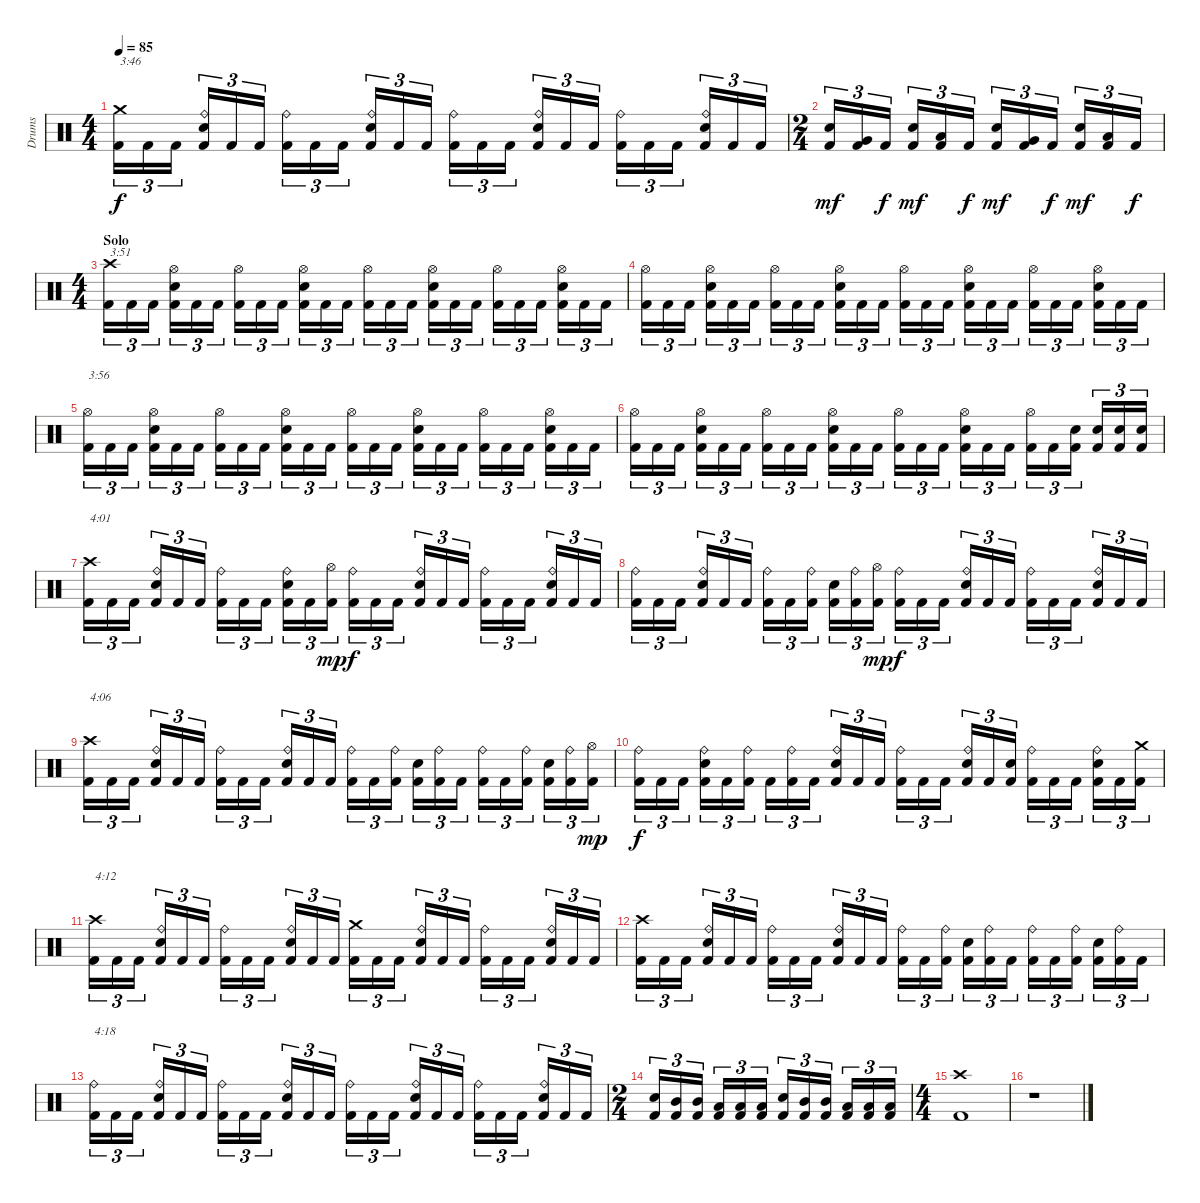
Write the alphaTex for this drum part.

\track ("Drums" "Drums") {instrument percussion}
\staff {score}
\articulation defaults
\ts (4 4)
\tempo 85
\clef neutral
\ks c
("Crash medium (hit)" "Kick (hit) 2").16{tu (3 2) txt "3:46" dy f} "Kick (hit) 2".16{tu (3 2)} "Kick (hit) 2".16{tu (3 2)} ("Ride (bell)" "Electric Snare (hit)" "Kick (hit) 2").16{tu (3 2)} "Kick (hit) 2".16{tu (3 2)} "Kick (hit) 2".16{tu (3 2)} ("Ride (bell)" "Kick (hit) 2").16{tu (3 2)} "Kick (hit) 2".16{tu (3 2)} "Kick (hit) 2".16{tu (3 2)} ("Ride (bell)" "Electric Snare (hit)" "Kick (hit) 2").16{tu (3 2)} "Kick (hit) 2".16{tu (3 2)} "Kick (hit) 2".16{tu (3 2)} ("Ride (bell)" "Kick (hit) 2").16{tu (3 2)} "Kick (hit) 2".16{tu (3 2)} "Kick (hit) 2".16{tu (3 2)} ("Ride (bell)" "Electric Snare (hit)" "Kick (hit) 2").16{tu (3 2)} "Kick (hit) 2".16{tu (3 2)} "Kick (hit) 2".16{tu (3 2)} ("Ride (bell)" "Kick (hit) 2").16{tu (3 2)} "Kick (hit) 2".16{tu (3 2)} "Kick (hit) 2".16{tu (3 2)} ("Ride (bell)" "Electric Snare (hit)" "Kick (hit) 2").16{tu (3 2)} "Kick (hit) 2".16{tu (3 2)} "Kick (hit) 2".16{tu (3 2)} |
\ts (2 4)
("Electric Snare (hit)" "Kick (hit) 2").16{tu (3 2) dy mf} ("Very Low Tom (hit)" "Kick (hit) 2").16{tu (3 2)} "Kick (hit) 2".16{tu (3 2) dy f} ("Electric Snare (hit)" "Kick (hit) 2").16{tu (3 2) dy mf} ("Low Floor Tom (hit)" "Kick (hit) 2").16{tu (3 2)} "Kick (hit) 2".16{tu (3 2) dy f} ("Electric Snare (hit)" "Kick (hit) 2").16{tu (3 2) dy mf} ("Very Low Tom (hit)" "Kick (hit) 2").16{tu (3 2)} "Kick (hit) 2".16{tu (3 2) dy f} ("Electric Snare (hit)" "Kick (hit) 2").16{tu (3 2) dy mf} ("Low Floor Tom (hit)" "Kick (hit) 2").16{tu (3 2)} "Kick (hit) 2".16{tu (3 2) dy f} |
\ts (4 4)
\section ("" "Solo")
("Crash high (hit)" "Kick (hit) 2").16{tu (3 2) txt "3:51"} "Kick (hit) 2".16{tu (3 2)} "Kick (hit) 2".16{tu (3 2)} ("Hi-Hat (open)" "Electric Snare (hit)" "Kick (hit) 2").16{tu (3 2)} "Kick (hit) 2".16{tu (3 2)} "Kick (hit) 2".16{tu (3 2)} ("Hi-Hat (open)" "Kick (hit) 2").16{tu (3 2)} "Kick (hit) 2".16{tu (3 2)} "Kick (hit) 2".16{tu (3 2)} ("Hi-Hat (open)" "Electric Snare (hit)" "Kick (hit) 2").16{tu (3 2)} "Kick (hit) 2".16{tu (3 2)} "Kick (hit) 2".16{tu (3 2)} ("Hi-Hat (open)" "Kick (hit) 2").16{tu (3 2)} "Kick (hit) 2".16{tu (3 2)} "Kick (hit) 2".16{tu (3 2)} ("Hi-Hat (open)" "Electric Snare (hit)" "Kick (hit) 2").16{tu (3 2)} "Kick (hit) 2".16{tu (3 2)} "Kick (hit) 2".16{tu (3 2)} ("Hi-Hat (open)" "Kick (hit) 2").16{tu (3 2)} "Kick (hit) 2".16{tu (3 2)} "Kick (hit) 2".16{tu (3 2)} ("Hi-Hat (open)" "Electric Snare (hit)" "Kick (hit) 2").16{tu (3 2)} "Kick (hit) 2".16{tu (3 2)} "Kick (hit) 2".16{tu (3 2)} |
("Hi-Hat (open)" "Kick (hit) 2").16{tu (3 2)} "Kick (hit) 2".16{tu (3 2)} "Kick (hit) 2".16{tu (3 2)} ("Hi-Hat (open)" "Electric Snare (hit)" "Kick (hit) 2").16{tu (3 2)} "Kick (hit) 2".16{tu (3 2)} "Kick (hit) 2".16{tu (3 2)} ("Hi-Hat (open)" "Kick (hit) 2").16{tu (3 2)} "Kick (hit) 2".16{tu (3 2)} "Kick (hit) 2".16{tu (3 2)} ("Hi-Hat (open)" "Electric Snare (hit)" "Kick (hit) 2").16{tu (3 2)} "Kick (hit) 2".16{tu (3 2)} "Kick (hit) 2".16{tu (3 2)} ("Hi-Hat (open)" "Kick (hit) 2").16{tu (3 2)} "Kick (hit) 2".16{tu (3 2)} "Kick (hit) 2".16{tu (3 2)} ("Hi-Hat (open)" "Electric Snare (hit)" "Kick (hit) 2").16{tu (3 2)} "Kick (hit) 2".16{tu (3 2)} "Kick (hit) 2".16{tu (3 2)} ("Hi-Hat (open)" "Kick (hit) 2").16{tu (3 2)} "Kick (hit) 2".16{tu (3 2)} "Kick (hit) 2".16{tu (3 2)} ("Hi-Hat (open)" "Electric Snare (hit)" "Kick (hit) 2").16{tu (3 2)} "Kick (hit) 2".16{tu (3 2)} "Kick (hit) 2".16{tu (3 2)} |
("Hi-Hat (open)" "Kick (hit) 2").16{tu (3 2) txt "3:56"} "Kick (hit) 2".16{tu (3 2)} "Kick (hit) 2".16{tu (3 2)} ("Hi-Hat (open)" "Electric Snare (hit)" "Kick (hit) 2").16{tu (3 2)} "Kick (hit) 2".16{tu (3 2)} "Kick (hit) 2".16{tu (3 2)} ("Hi-Hat (open)" "Kick (hit) 2").16{tu (3 2)} "Kick (hit) 2".16{tu (3 2)} "Kick (hit) 2".16{tu (3 2)} ("Hi-Hat (open)" "Electric Snare (hit)" "Kick (hit) 2").16{tu (3 2)} "Kick (hit) 2".16{tu (3 2)} "Kick (hit) 2".16{tu (3 2)} ("Hi-Hat (open)" "Kick (hit) 2").16{tu (3 2)} "Kick (hit) 2".16{tu (3 2)} "Kick (hit) 2".16{tu (3 2)} ("Hi-Hat (open)" "Electric Snare (hit)" "Kick (hit) 2").16{tu (3 2)} "Kick (hit) 2".16{tu (3 2)} "Kick (hit) 2".16{tu (3 2)} ("Hi-Hat (open)" "Kick (hit) 2").16{tu (3 2)} "Kick (hit) 2".16{tu (3 2)} "Kick (hit) 2".16{tu (3 2)} ("Hi-Hat (open)" "Electric Snare (hit)" "Kick (hit) 2").16{tu (3 2)} "Kick (hit) 2".16{tu (3 2)} "Kick (hit) 2".16{tu (3 2)} |
("Hi-Hat (open)" "Kick (hit) 2").16{tu (3 2)} "Kick (hit) 2".16{tu (3 2)} "Kick (hit) 2".16{tu (3 2)} ("Hi-Hat (open)" "Electric Snare (hit)" "Kick (hit) 2").16{tu (3 2)} "Kick (hit) 2".16{tu (3 2)} "Kick (hit) 2".16{tu (3 2)} ("Hi-Hat (open)" "Kick (hit) 2").16{tu (3 2)} "Kick (hit) 2".16{tu (3 2)} "Kick (hit) 2".16{tu (3 2)} ("Hi-Hat (open)" "Electric Snare (hit)" "Kick (hit) 2").16{tu (3 2)} "Kick (hit) 2".16{tu (3 2)} "Kick (hit) 2".16{tu (3 2)} ("Hi-Hat (open)" "Kick (hit) 2").16{tu (3 2)} "Kick (hit) 2".16{tu (3 2)} "Kick (hit) 2".16{tu (3 2)} ("Hi-Hat (open)" "Electric Snare (hit)" "Kick (hit) 2").16{tu (3 2)} "Kick (hit) 2".16{tu (3 2)} "Kick (hit) 2".16{tu (3 2)} ("Hi-Hat (open)" "Kick (hit) 2").16{tu (3 2)} "Kick (hit) 2".16{tu (3 2)} ("Electric Snare (hit)" "Kick (hit) 2").16{tu (3 2)} ("Electric Snare (hit)" "Kick (hit) 2").16{tu (3 2)} ("Electric Snare (hit)" "Kick (hit) 2").16{tu (3 2)} ("Electric Snare (hit)" "Kick (hit) 2").16{tu (3 2)} |
("Crash high (hit)" "Kick (hit) 2").16{tu (3 2) txt "4:01"} "Kick (hit) 2".16{tu (3 2)} "Kick (hit) 2".16{tu (3 2)} ("Ride (bell)" "Electric Snare (hit)" "Kick (hit) 2").16{tu (3 2)} "Kick (hit) 2".16{tu (3 2)} "Kick (hit) 2".16{tu (3 2)} ("Ride (bell)" "Kick (hit) 2").16{tu (3 2)} "Kick (hit) 2".16{tu (3 2)} "Kick (hit) 2".16{tu (3 2)} ("Ride (bell)" "Electric Snare (hit)" "Kick (hit) 2").16{tu (3 2)} "Kick (hit) 2".16{tu (3 2)} ("Hi-Hat (open)" "Kick (hit) 2").16{tu (3 2) dy mp} ("Ride (bell)" "Kick (hit) 2").16{tu (3 2) dy f} "Kick (hit) 2".16{tu (3 2)} "Kick (hit) 2".16{tu (3 2)} ("Ride (bell)" "Electric Snare (hit)" "Kick (hit) 2").16{tu (3 2)} "Kick (hit) 2".16{tu (3 2)} "Kick (hit) 2".16{tu (3 2)} ("Ride (bell)" "Kick (hit) 2").16{tu (3 2)} "Kick (hit) 2".16{tu (3 2)} "Kick (hit) 2".16{tu (3 2)} ("Ride (bell)" "Electric Snare (hit)" "Kick (hit) 2").16{tu (3 2)} "Kick (hit) 2".16{tu (3 2)} "Kick (hit) 2".16{tu (3 2)} |
("Ride (bell)" "Kick (hit) 2").16{tu (3 2)} "Kick (hit) 2".16{tu (3 2)} "Kick (hit) 2".16{tu (3 2)} ("Ride (bell)" "Electric Snare (hit)" "Kick (hit) 2").16{tu (3 2)} "Kick (hit) 2".16{tu (3 2)} "Kick (hit) 2".16{tu (3 2)} ("Ride (bell)" "Kick (hit) 2").16{tu (3 2)} "Kick (hit) 2".16{tu (3 2)} ("Ride (bell)" "Kick (hit) 2").16{tu (3 2)} ("Electric Snare (hit)" "Kick (hit) 2").16{tu (3 2)} ("Ride (bell)" "Kick (hit) 2").16{tu (3 2)} ("Hi-Hat (open)" "Kick (hit) 2").16{tu (3 2) dy mp} ("Ride (bell)" "Kick (hit) 2").16{tu (3 2) dy f} "Kick (hit) 2".16{tu (3 2)} "Kick (hit) 2".16{tu (3 2)} ("Ride (bell)" "Electric Snare (hit)" "Kick (hit) 2").16{tu (3 2)} "Kick (hit) 2".16{tu (3 2)} "Kick (hit) 2".16{tu (3 2)} ("Ride (bell)" "Kick (hit) 2").16{tu (3 2)} "Kick (hit) 2".16{tu (3 2)} "Kick (hit) 2".16{tu (3 2)} ("Ride (bell)" "Electric Snare (hit)" "Kick (hit) 2").16{tu (3 2)} "Kick (hit) 2".16{tu (3 2)} "Kick (hit) 2".16{tu (3 2)} |
("Crash high (hit)" "Kick (hit) 2").16{tu (3 2) txt "4:06"} "Kick (hit) 2".16{tu (3 2)} "Kick (hit) 2".16{tu (3 2)} ("Ride (bell)" "Electric Snare (hit)" "Kick (hit) 2").16{tu (3 2)} "Kick (hit) 2".16{tu (3 2)} "Kick (hit) 2".16{tu (3 2)} ("Ride (bell)" "Kick (hit) 2").16{tu (3 2)} "Kick (hit) 2".16{tu (3 2)} "Kick (hit) 2".16{tu (3 2)} ("Ride (bell)" "Electric Snare (hit)" "Kick (hit) 2").16{tu (3 2)} "Kick (hit) 2".16{tu (3 2)} "Kick (hit) 2".16{tu (3 2)} ("Ride (bell)" "Kick (hit) 2").16{tu (3 2)} "Kick (hit) 2".16{tu (3 2)} ("Ride (bell)" "Kick (hit) 2").16{tu (3 2)} ("Electric Snare (hit)" "Kick (hit) 2").16{tu (3 2)} ("Ride (bell)" "Kick (hit) 2").16{tu (3 2)} "Kick (hit) 2".16{tu (3 2)} ("Ride (bell)" "Kick (hit) 2").16{tu (3 2)} "Kick (hit) 2".16{tu (3 2)} ("Ride (bell)" "Kick (hit) 2").16{tu (3 2)} ("Electric Snare (hit)" "Kick (hit) 2").16{tu (3 2)} ("Ride (bell)" "Kick (hit) 2").16{tu (3 2)} ("Hi-Hat (open)" "Kick (hit) 2").16{tu (3 2) dy mp} |
("Ride (bell)" "Kick (hit) 2").16{tu (3 2) dy f} "Kick (hit) 2".16{tu (3 2)} "Kick (hit) 2".16{tu (3 2)} ("Ride (bell)" "Electric Snare (hit)" "Kick (hit) 2").16{tu (3 2)} "Kick (hit) 2".16{tu (3 2)} ("Ride (bell)" "Kick (hit) 2").16{tu (3 2)} "Kick (hit) 2".16{tu (3 2)} ("Ride (bell)" "Kick (hit) 2").16{tu (3 2)} "Kick (hit) 2".16{tu (3 2)} ("Ride (bell)" "Electric Snare (hit)" "Kick (hit) 2").16{tu (3 2)} "Kick (hit) 2".16{tu (3 2)} "Kick (hit) 2".16{tu (3 2)} ("Ride (bell)" "Kick (hit) 2").16{tu (3 2)} "Kick (hit) 2".16{tu (3 2)} "Kick (hit) 2".16{tu (3 2)} ("Ride (bell)" "Electric Snare (hit)" "Kick (hit) 2").16{tu (3 2)} "Kick (hit) 2".16{tu (3 2)} ("Electric Snare (hit)" "Kick (hit) 2").16{tu (3 2)} ("Ride (bell)" "Kick (hit) 2").16{tu (3 2)} "Kick (hit) 2".16{tu (3 2)} "Kick (hit) 2".16{tu (3 2)} ("Ride (bell)" "Electric Snare (hit)" "Kick (hit) 2").16{tu (3 2)} "Kick (hit) 2".16{tu (3 2)} ("Crash medium (hit)" "Kick (hit) 2").16{tu (3 2)} |
("Crash high (hit)" "Kick (hit) 2").16{tu (3 2) txt "4:12"} "Kick (hit) 2".16{tu (3 2)} "Kick (hit) 2".16{tu (3 2)} ("Ride (bell)" "Electric Snare (hit)" "Kick (hit) 2").16{tu (3 2)} "Kick (hit) 2".16{tu (3 2)} "Kick (hit) 2".16{tu (3 2)} ("Ride (bell)" "Kick (hit) 2").16{tu (3 2)} "Kick (hit) 2".16{tu (3 2)} "Kick (hit) 2".16{tu (3 2)} ("Ride (bell)" "Electric Snare (hit)" "Kick (hit) 2").16{tu (3 2)} "Kick (hit) 2".16{tu (3 2)} "Kick (hit) 2".16{tu (3 2)} ("Crash medium (hit)" "Kick (hit) 2").16{tu (3 2)} "Kick (hit) 2".16{tu (3 2)} "Kick (hit) 2".16{tu (3 2)} ("Ride (bell)" "Electric Snare (hit)" "Kick (hit) 2").16{tu (3 2)} "Kick (hit) 2".16{tu (3 2)} "Kick (hit) 2".16{tu (3 2)} ("Ride (bell)" "Kick (hit) 2").16{tu (3 2)} "Kick (hit) 2".16{tu (3 2)} "Kick (hit) 2".16{tu (3 2)} ("Ride (bell)" "Electric Snare (hit)" "Kick (hit) 2").16{tu (3 2)} "Kick (hit) 2".16{tu (3 2)} "Kick (hit) 2".16{tu (3 2)} |
("Crash high (hit)" "Kick (hit) 2").16{tu (3 2)} "Kick (hit) 2".16{tu (3 2)} "Kick (hit) 2".16{tu (3 2)} ("Ride (bell)" "Electric Snare (hit)" "Kick (hit) 2").16{tu (3 2)} "Kick (hit) 2".16{tu (3 2)} "Kick (hit) 2".16{tu (3 2)} ("Ride (bell)" "Kick (hit) 2").16{tu (3 2)} "Kick (hit) 2".16{tu (3 2)} "Kick (hit) 2".16{tu (3 2)} ("Ride (bell)" "Electric Snare (hit)" "Kick (hit) 2").16{tu (3 2)} "Kick (hit) 2".16{tu (3 2)} "Kick (hit) 2".16{tu (3 2)} ("Ride (bell)" "Kick (hit) 2").16{tu (3 2)} "Kick (hit) 2".16{tu (3 2)} ("Ride (bell)" "Kick (hit) 2").16{tu (3 2)} ("Electric Snare (hit)" "Kick (hit) 2").16{tu (3 2)} ("Ride (bell)" "Kick (hit) 2").16{tu (3 2)} "Kick (hit) 2".16{tu (3 2)} ("Ride (bell)" "Kick (hit) 2").16{tu (3 2)} "Kick (hit) 2".16{tu (3 2)} ("Ride (bell)" "Kick (hit) 2").16{tu (3 2)} ("Electric Snare (hit)" "Kick (hit) 2").16{tu (3 2)} ("Ride (bell)" "Kick (hit) 2").16{tu (3 2)} "Kick (hit) 2".16{tu (3 2)} |
("Ride (bell)" "Kick (hit) 2").16{tu (3 2) txt "4:18"} "Kick (hit) 2".16{tu (3 2)} "Kick (hit) 2".16{tu (3 2)} ("Ride (bell)" "Electric Snare (hit)" "Kick (hit) 2").16{tu (3 2)} "Kick (hit) 2".16{tu (3 2)} "Kick (hit) 2".16{tu (3 2)} ("Ride (bell)" "Kick (hit) 2").16{tu (3 2)} "Kick (hit) 2".16{tu (3 2)} "Kick (hit) 2".16{tu (3 2)} ("Ride (bell)" "Electric Snare (hit)" "Kick (hit) 2").16{tu (3 2)} "Kick (hit) 2".16{tu (3 2)} "Kick (hit) 2".16{tu (3 2)} ("Ride (bell)" "Kick (hit) 2").16{tu (3 2)} "Kick (hit) 2".16{tu (3 2)} "Kick (hit) 2".16{tu (3 2)} ("Ride (bell)" "Electric Snare (hit)" "Kick (hit) 2").16{tu (3 2)} "Kick (hit) 2".16{tu (3 2)} "Kick (hit) 2".16{tu (3 2)} ("Ride (bell)" "Kick (hit) 2").16{tu (3 2)} "Kick (hit) 2".16{tu (3 2)} "Kick (hit) 2".16{tu (3 2)} ("Ride (bell)" "Electric Snare (hit)" "Kick (hit) 2").16{tu (3 2)} "Kick (hit) 2".16{tu (3 2)} "Kick (hit) 2".16{tu (3 2)} |
\ts (2 4)
("Electric Snare (hit)" "Kick (hit) 2").16{tu (3 2)} ("Mid Tom (hit)" "Kick (hit) 2").16{tu (3 2)} ("Mid Tom (hit)" "Kick (hit) 2").16{tu (3 2)} ("Low Tom (hit)" "Kick (hit) 2").16{tu (3 2)} ("Low Tom (hit)" "Kick (hit) 2").16{tu (3 2)} ("Low Tom (hit)" "Kick (hit) 2").16{tu (3 2)} ("Electric Snare (hit)" "Kick (hit) 2").16{tu (3 2)} ("Mid Tom (hit)" "Kick (hit) 2").16{tu (3 2)} ("Mid Tom (hit)" "Kick (hit) 2").16{tu (3 2)} ("Low Tom (hit)" "Kick (hit) 2").16{tu (3 2)} ("Low Tom (hit)" "Kick (hit) 2").16{tu (3 2)} ("Low Tom (hit)" "Kick (hit) 2").16{tu (3 2)} |
\ts (4 4)
("Crash high (hit)" "Kick (hit) 2").1 |
r.1
